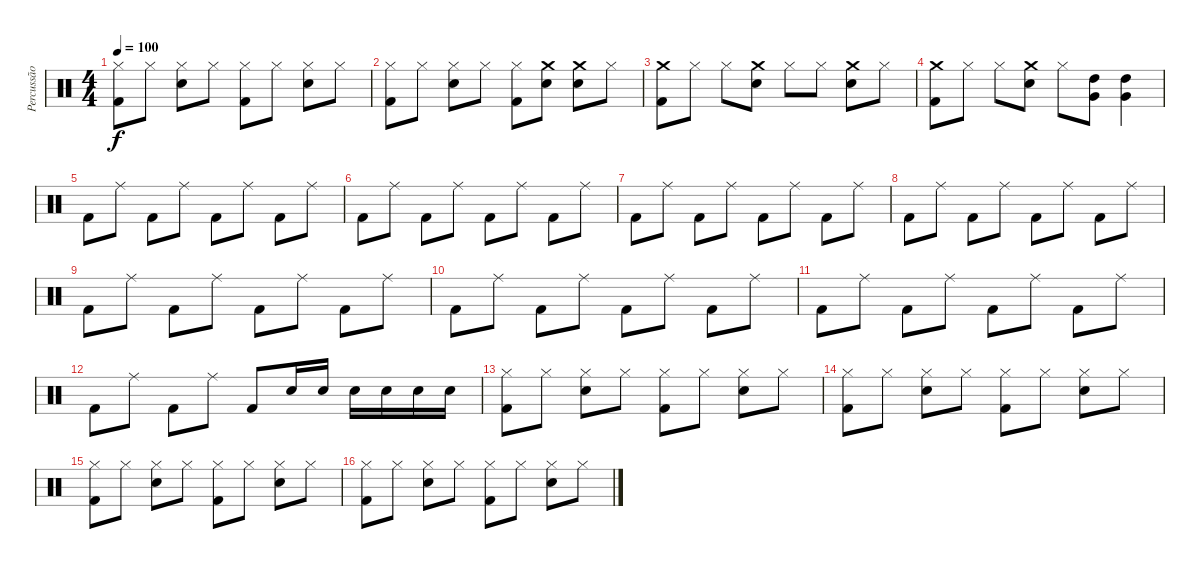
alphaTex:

\track ("Percussão" "Percussão") {instrument percussion}
\staff {score}
\articulation defaults
\ts (4 4)
\tempo 100
\clef neutral
\ks c
("Hi-Hat (closed)" "Kick (hit) 2").8{dy f} "Hi-Hat (closed)".8 ("Hi-Hat (closed)" "Snare (hit) 2").8 "Hi-Hat (closed)".8 ("Hi-Hat (closed)" "Kick (hit) 2").8 "Hi-Hat (closed)".8 ("Hi-Hat (closed)" "Snare (hit) 2").8 "Hi-Hat (closed)".8 |
("Hi-Hat (closed)" "Kick (hit) 2").8 "Hi-Hat (closed)".8 ("Hi-Hat (closed)" "Snare (hit) 2").8 "Hi-Hat (closed)".8 ("Hi-Hat (closed)" "Kick (hit) 2").8 ("Crash medium (hit)" "Snare (hit) 2").8 ("Crash medium (hit)" "Snare (hit) 2").8 "Hi-Hat (closed)".8 |
("Crash medium (hit)" "Kick (hit) 2").8 "Hi-Hat (closed)".8 "Hi-Hat (closed)".8 ("Crash medium (hit)" "Snare (hit) 2").8 "Hi-Hat (closed)".8 "Hi-Hat (closed)".8 ("Crash medium (hit)" "Snare (hit) 2").8 "Hi-Hat (closed)".8 |
("Crash medium (hit)" "Kick (hit) 2").8 "Hi-Hat (closed)".8 "Hi-Hat (closed)".8 ("Crash medium (hit)" "Snare (hit) 2").8 "Hi-Hat (closed)".8 ("Very Low Tom (hit)" "High Tom (hit)").8 ("Very Low Tom (hit)" "High Tom (hit)").4 |
"Kick (hit) 2".8 "Ride (middle)".8 "Kick (hit) 2".8 "Ride (middle)".8 "Kick (hit) 2".8 "Ride (middle)".8 "Kick (hit) 2".8 "Ride (middle)".8 |
"Kick (hit) 2".8 "Ride (middle)".8 "Kick (hit) 2".8 "Ride (middle)".8 "Kick (hit) 2".8 "Ride (middle)".8 "Kick (hit) 2".8 "Ride (middle)".8 |
"Kick (hit) 2".8 "Ride (middle)".8 "Kick (hit) 2".8 "Ride (middle)".8 "Kick (hit) 2".8 "Ride (middle)".8 "Kick (hit) 2".8 "Ride (middle)".8 |
"Kick (hit) 2".8 "Ride (middle)".8 "Kick (hit) 2".8 "Ride (middle)".8 "Kick (hit) 2".8 "Ride (middle)".8 "Kick (hit) 2".8 "Ride (middle)".8 |
"Kick (hit) 2".8 "Ride (middle)".8 "Kick (hit) 2".8 "Ride (middle)".8 "Kick (hit) 2".8 "Ride (middle)".8 "Kick (hit) 2".8 "Ride (middle)".8 |
"Kick (hit) 2".8 "Ride (middle)".8 "Kick (hit) 2".8 "Ride (middle)".8 "Kick (hit) 2".8 "Ride (middle)".8 "Kick (hit) 2".8 "Ride (middle)".8 |
"Kick (hit) 2".8 "Ride (middle)".8 "Kick (hit) 2".8 "Ride (middle)".8 "Kick (hit) 2".8 "Ride (middle)".8 "Kick (hit) 2".8 "Ride (middle)".8 |
"Kick (hit) 2".8 "Ride (middle)".8 "Kick (hit) 2".8 "Ride (middle)".8 "Kick (hit) 2".8 "Snare (hit) 2".16 "Snare (hit) 2".16 "Snare (hit) 2".16 "Snare (hit) 2".16 "Snare (hit) 2".16 "Snare (hit) 2".16 |
("Hi-Hat (closed)" "Kick (hit) 2").8 "Hi-Hat (closed)".8 ("Hi-Hat (closed)" "Snare (hit) 2").8 "Hi-Hat (closed)".8 ("Hi-Hat (closed)" "Kick (hit) 2").8 "Hi-Hat (closed)".8 ("Hi-Hat (closed)" "Snare (hit) 2").8 "Hi-Hat (closed)".8 |
("Hi-Hat (closed)" "Kick (hit) 2").8 "Hi-Hat (closed)".8 ("Hi-Hat (closed)" "Snare (hit) 2").8 "Hi-Hat (closed)".8 ("Hi-Hat (closed)" "Kick (hit) 2").8 "Hi-Hat (closed)".8 ("Hi-Hat (closed)" "Snare (hit) 2").8 "Hi-Hat (closed)".8 |
("Hi-Hat (closed)" "Kick (hit) 2").8 "Hi-Hat (closed)".8 ("Hi-Hat (closed)" "Snare (hit) 2").8 "Hi-Hat (closed)".8 ("Hi-Hat (closed)" "Kick (hit) 2").8 "Hi-Hat (closed)".8 ("Hi-Hat (closed)" "Snare (hit) 2").8 "Hi-Hat (closed)".8 |
("Hi-Hat (closed)" "Kick (hit) 2").8 "Hi-Hat (closed)".8 ("Hi-Hat (closed)" "Snare (hit) 2").8 "Hi-Hat (closed)".8 ("Hi-Hat (closed)" "Kick (hit) 2").8 "Hi-Hat (closed)".8 ("Hi-Hat (closed)" "Snare (hit) 2").8 "Hi-Hat (closed)".8
